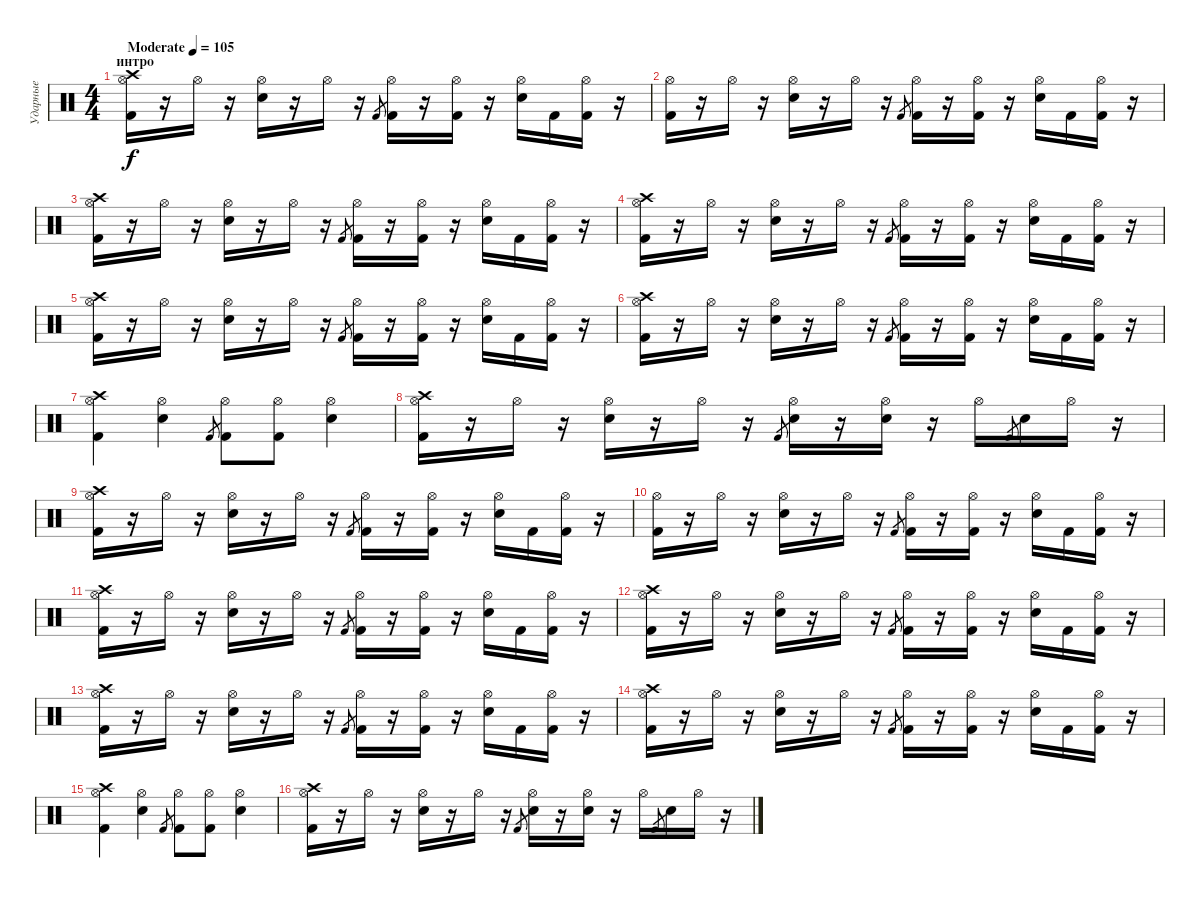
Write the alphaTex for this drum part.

\track ("Ударные" "Ударные") {instrument percussion}
\staff {score}
\articulation defaults
\ts (4 4)
\section ("" "интро")
\tempo (105 "Moderate")
\clef neutral
\ks c
("Hi-Hat (open)" "Crash high (hit)" "Kick (hit) 2").16{dy f} r.16 "Hi-Hat (open)".16 r.16 ("Hi-Hat (open)" "Electric Snare (hit)").16 r.16 "Hi-Hat (open)".16 r.16 "Kick (hit) 2".8{gr} ("Hi-Hat (open)" "Kick (hit) 2").16 r.16 ("Hi-Hat (open)" "Kick (hit) 2").16 r.16 ("Hi-Hat (open)" "Electric Snare (hit)").16 "Kick (hit) 2".16 ("Hi-Hat (open)" "Kick (hit) 2").16 r.16 |
("Hi-Hat (open)" "Kick (hit) 2").16 r.16 "Hi-Hat (open)".16 r.16 ("Hi-Hat (open)" "Electric Snare (hit)").16 r.16 "Hi-Hat (open)".16 r.16 "Kick (hit) 2".8{gr} ("Hi-Hat (open)" "Kick (hit) 2").16 r.16 ("Hi-Hat (open)" "Kick (hit) 2").16 r.16 ("Hi-Hat (open)" "Electric Snare (hit)").16 "Kick (hit) 2".16 ("Hi-Hat (open)" "Kick (hit) 2").16 r.16 |
("Hi-Hat (open)" "Crash high (hit)" "Kick (hit) 2").16 r.16 "Hi-Hat (open)".16 r.16 ("Hi-Hat (open)" "Electric Snare (hit)").16 r.16 "Hi-Hat (open)".16 r.16 "Kick (hit) 2".8{gr} ("Hi-Hat (open)" "Kick (hit) 2").16 r.16 ("Hi-Hat (open)" "Kick (hit) 2").16 r.16 ("Hi-Hat (open)" "Electric Snare (hit)").16 "Kick (hit) 2".16 ("Hi-Hat (open)" "Kick (hit) 2").16 r.16 |
("Hi-Hat (open)" "Crash high (hit)" "Kick (hit) 2").16 r.16 "Hi-Hat (open)".16 r.16 ("Hi-Hat (open)" "Electric Snare (hit)").16 r.16 "Hi-Hat (open)".16 r.16 "Kick (hit) 2".8{gr} ("Hi-Hat (open)" "Kick (hit) 2").16 r.16 ("Hi-Hat (open)" "Kick (hit) 2").16 r.16 ("Hi-Hat (open)" "Electric Snare (hit)").16 "Kick (hit) 2".16 ("Hi-Hat (open)" "Kick (hit) 2").16 r.16 |
("Hi-Hat (open)" "Crash high (hit)" "Kick (hit) 2").16 r.16 "Hi-Hat (open)".16 r.16 ("Hi-Hat (open)" "Electric Snare (hit)").16 r.16 "Hi-Hat (open)".16 r.16 "Kick (hit) 2".8{gr} ("Hi-Hat (open)" "Kick (hit) 2").16 r.16 ("Hi-Hat (open)" "Kick (hit) 2").16 r.16 ("Hi-Hat (open)" "Electric Snare (hit)").16 "Kick (hit) 2".16 ("Hi-Hat (open)" "Kick (hit) 2").16 r.16 |
("Hi-Hat (open)" "Crash high (hit)" "Kick (hit) 2").16 r.16 "Hi-Hat (open)".16 r.16 ("Hi-Hat (open)" "Electric Snare (hit)").16 r.16 "Hi-Hat (open)".16 r.16 "Kick (hit) 2".8{gr} ("Hi-Hat (open)" "Kick (hit) 2").16 r.16 ("Hi-Hat (open)" "Kick (hit) 2").16 r.16 ("Hi-Hat (open)" "Electric Snare (hit)").16 "Kick (hit) 2".16 ("Hi-Hat (open)" "Kick (hit) 2").16 r.16 |
("Hi-Hat (open)" "Crash high (hit)" "Kick (hit) 2").4 ("Hi-Hat (open)" "Electric Snare (hit)").4 "Kick (hit) 2".8{gr} ("Hi-Hat (open)" "Kick (hit) 2").8 ("Hi-Hat (open)" "Kick (hit) 2").8 ("Hi-Hat (open)" "Electric Snare (hit)").4 |
("Hi-Hat (open)" "Crash high (hit)" "Kick (hit) 2").16 r.16 "Hi-Hat (open)".16 r.16 ("Hi-Hat (open)" "Electric Snare (hit)").16 r.16 "Hi-Hat (open)".16 r.16 "Kick (hit) 2".8{gr} ("Hi-Hat (open)" "Electric Snare (hit)").16 r.16 ("Hi-Hat (open)" "Electric Snare (hit)").16 r.16 "Hi-Hat (open)".16 "Kick (hit) 2".8{gr} "Electric Snare (hit)".16 "Hi-Hat (open)".16 r.16 |
("Hi-Hat (open)" "Crash high (hit)" "Kick (hit) 2").16 r.16 "Hi-Hat (open)".16 r.16 ("Hi-Hat (open)" "Electric Snare (hit)").16 r.16 "Hi-Hat (open)".16 r.16 "Kick (hit) 2".8{gr} ("Hi-Hat (open)" "Kick (hit) 2").16 r.16 ("Hi-Hat (open)" "Kick (hit) 2").16 r.16 ("Hi-Hat (open)" "Electric Snare (hit)").16 "Kick (hit) 2".16 ("Hi-Hat (open)" "Kick (hit) 2").16 r.16 |
("Hi-Hat (open)" "Kick (hit) 2").16 r.16 "Hi-Hat (open)".16 r.16 ("Hi-Hat (open)" "Electric Snare (hit)").16 r.16 "Hi-Hat (open)".16 r.16 "Kick (hit) 2".8{gr} ("Hi-Hat (open)" "Kick (hit) 2").16 r.16 ("Hi-Hat (open)" "Kick (hit) 2").16 r.16 ("Hi-Hat (open)" "Electric Snare (hit)").16 "Kick (hit) 2".16 ("Hi-Hat (open)" "Kick (hit) 2").16 r.16 |
("Hi-Hat (open)" "Crash high (hit)" "Kick (hit) 2").16 r.16 "Hi-Hat (open)".16 r.16 ("Hi-Hat (open)" "Electric Snare (hit)").16 r.16 "Hi-Hat (open)".16 r.16 "Kick (hit) 2".8{gr} ("Hi-Hat (open)" "Kick (hit) 2").16 r.16 ("Hi-Hat (open)" "Kick (hit) 2").16 r.16 ("Hi-Hat (open)" "Electric Snare (hit)").16 "Kick (hit) 2".16 ("Hi-Hat (open)" "Kick (hit) 2").16 r.16 |
("Hi-Hat (open)" "Crash high (hit)" "Kick (hit) 2").16 r.16 "Hi-Hat (open)".16 r.16 ("Hi-Hat (open)" "Electric Snare (hit)").16 r.16 "Hi-Hat (open)".16 r.16 "Kick (hit) 2".8{gr} ("Hi-Hat (open)" "Kick (hit) 2").16 r.16 ("Hi-Hat (open)" "Kick (hit) 2").16 r.16 ("Hi-Hat (open)" "Electric Snare (hit)").16 "Kick (hit) 2".16 ("Hi-Hat (open)" "Kick (hit) 2").16 r.16 |
("Hi-Hat (open)" "Crash high (hit)" "Kick (hit) 2").16 r.16 "Hi-Hat (open)".16 r.16 ("Hi-Hat (open)" "Electric Snare (hit)").16 r.16 "Hi-Hat (open)".16 r.16 "Kick (hit) 2".8{gr} ("Hi-Hat (open)" "Kick (hit) 2").16 r.16 ("Hi-Hat (open)" "Kick (hit) 2").16 r.16 ("Hi-Hat (open)" "Electric Snare (hit)").16 "Kick (hit) 2".16 ("Hi-Hat (open)" "Kick (hit) 2").16 r.16 |
("Hi-Hat (open)" "Crash high (hit)" "Kick (hit) 2").16 r.16 "Hi-Hat (open)".16 r.16 ("Hi-Hat (open)" "Electric Snare (hit)").16 r.16 "Hi-Hat (open)".16 r.16 "Kick (hit) 2".8{gr} ("Hi-Hat (open)" "Kick (hit) 2").16 r.16 ("Hi-Hat (open)" "Kick (hit) 2").16 r.16 ("Hi-Hat (open)" "Electric Snare (hit)").16 "Kick (hit) 2".16 ("Hi-Hat (open)" "Kick (hit) 2").16 r.16 |
("Hi-Hat (open)" "Crash high (hit)" "Kick (hit) 2").4 ("Hi-Hat (open)" "Electric Snare (hit)").4 "Kick (hit) 2".8{gr} ("Hi-Hat (open)" "Kick (hit) 2").8 ("Hi-Hat (open)" "Kick (hit) 2").8 ("Hi-Hat (open)" "Electric Snare (hit)").4 |
("Hi-Hat (open)" "Crash high (hit)" "Kick (hit) 2").16 r.16 "Hi-Hat (open)".16 r.16 ("Hi-Hat (open)" "Electric Snare (hit)").16 r.16 "Hi-Hat (open)".16 r.16 "Kick (hit) 2".8{gr} ("Hi-Hat (open)" "Electric Snare (hit)").16 r.16 ("Hi-Hat (open)" "Electric Snare (hit)").16 r.16 "Hi-Hat (open)".16 "Kick (hit) 2".8{gr} "Electric Snare (hit)".16 "Hi-Hat (open)".16 r.16
